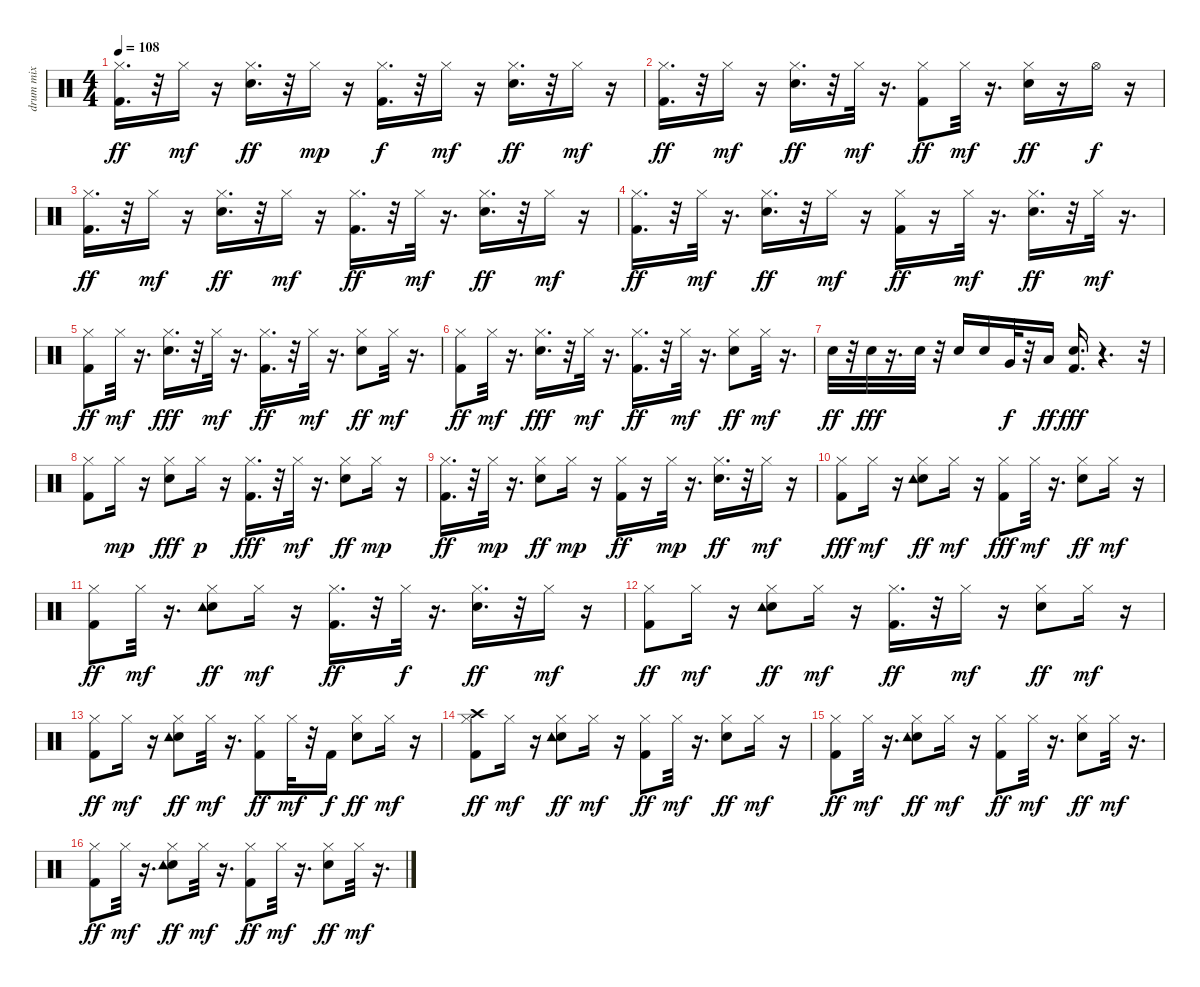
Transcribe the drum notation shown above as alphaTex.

\track ("drum mix" "drum mix") {instrument percussion}
\staff {score}
\articulation defaults
\ts (4 4)
\tempo 108
\clef neutral
\ks c
("Kick (hit) 2" "Hi-Hat (closed)").16{d dy ff} r.32 "Hi-Hat (closed)".16{dy mf} r.16 ("Electric Snare (hit)" "Hi-Hat (closed)").16{d dy ff} r.32 "Hi-Hat (closed)".16{dy mp} r.16 ("Kick (hit) 2" "Hi-Hat (closed)").16{d dy f} r.32 "Hi-Hat (closed)".16{dy mf} r.16 ("Electric Snare (hit)" "Hi-Hat (closed)").16{d dy ff} r.32 "Hi-Hat (closed)".16{dy mf} r.16 |
("Kick (hit) 2" "Hi-Hat (closed)").16{d dy ff} r.32 "Hi-Hat (closed)".16{dy mf} r.16 ("Electric Snare (hit)" "Hi-Hat (closed)").16{d dy ff} r.32 "Hi-Hat (closed)".32{dy mf} r.16{d} ("Kick (hit) 2" "Hi-Hat (closed)").8{dy ff} "Hi-Hat (closed)".32{dy mf} r.16{d} ("Electric Snare (hit)" "Hi-Hat (closed)").16{dy ff} r.16 "Hi-Hat (open)".16{dy f} r.16 |
("Kick (hit) 2" "Hi-Hat (closed)").16{d dy ff} r.32 "Hi-Hat (closed)".16{dy mf} r.16 ("Electric Snare (hit)" "Hi-Hat (closed)").16{d dy ff} r.32 "Hi-Hat (closed)".16{dy mf} r.16 ("Kick (hit) 2" "Hi-Hat (closed)").16{d dy ff} r.32 "Hi-Hat (closed)".32{dy mf} r.16{d} ("Electric Snare (hit)" "Hi-Hat (closed)").16{d dy ff} r.32 "Hi-Hat (closed)".16{dy mf} r.16 |
("Kick (hit) 2" "Hi-Hat (closed)").16{d dy ff} r.32 "Hi-Hat (closed)".32{dy mf} r.16{d} ("Electric Snare (hit)" "Hi-Hat (closed)").16{d dy ff} r.32 "Hi-Hat (closed)".16{dy mf} r.16 ("Kick (hit) 2" "Hi-Hat (closed)").16{dy ff} r.16 "Hi-Hat (closed)".32{dy mf} r.16{d} ("Electric Snare (hit)" "Hi-Hat (closed)").16{d dy ff} r.32 "Hi-Hat (closed)".32{dy mf} r.16{d} |
("Kick (hit) 2" "Hi-Hat (closed)").8{dy ff} "Hi-Hat (closed)".32{dy mf} r.16{d} ("Electric Snare (hit)" "Hi-Hat (closed)").16{d dy fff} r.32 "Hi-Hat (closed)".32{dy mf} r.16{d} ("Kick (hit) 2" "Hi-Hat (closed)").16{d dy ff} r.32 "Hi-Hat (closed)".32{dy mf} r.16{d} ("Electric Snare (hit)" "Hi-Hat (closed)").8{dy ff} "Hi-Hat (closed)".32{dy mf} r.16{d} |
("Kick (hit) 2" "Hi-Hat (closed)").8{dy ff} "Hi-Hat (closed)".32{dy mf} r.16{d} ("Electric Snare (hit)" "Hi-Hat (closed)").16{d dy fff} r.32 "Hi-Hat (closed)".32{dy mf} r.16{d} ("Kick (hit) 2" "Hi-Hat (closed)").16{d dy ff} r.32 "Hi-Hat (closed)".32{dy mf} r.16{d} ("Electric Snare (hit)" "Hi-Hat (closed)").8{dy ff} "Hi-Hat (closed)".32{dy mf} r.16{d} |
"Electric Snare (hit)".32{dy ff} r.32 "Electric Snare (hit)".32{dy fff} r.16{d} "Electric Snare (hit)".32 r.32 "Electric Snare (hit)".16 "Electric Snare (hit)".16 "Very Low Tom (hit)".32{dy f} r.32 "Low Floor Tom (hit)".16{dy ff} ("Kick (hit) 2" "Electric Snare (hit)").16{d dy fff} r.4{d} r.32 |
("Kick (hit) 2" "Hi-Hat (closed)").8 "Hi-Hat (closed)".16{dy mp} r.16 ("Electric Snare (hit)" "Hi-Hat (closed)").8{dy fff} "Hi-Hat (closed)".16{dy p} r.16 ("Kick (hit) 2" "Hi-Hat (closed)").16{d dy fff} r.32 "Hi-Hat (closed)".32{dy mf} r.16{d} ("Electric Snare (hit)" "Hi-Hat (closed)").8{dy ff} "Hi-Hat (closed)".16{dy mp} r.16 |
("Kick (hit) 2" "Hi-Hat (closed)").16{d dy ff} r.32 "Hi-Hat (closed)".32{dy mp} r.16{d} ("Electric Snare (hit)" "Hi-Hat (closed)").8{dy ff} "Hi-Hat (closed)".16{dy mp} r.16 ("Kick (hit) 2" "Hi-Hat (closed)").16{dy ff} r.16 "Hi-Hat (closed)".32{dy mp} r.16{d} ("Electric Snare (hit)" "Hi-Hat (closed)").16{d dy ff} r.32 "Hi-Hat (closed)".16{dy mf} r.16 |
("Kick (hit) 2" "Hi-Hat (closed)").8{dy fff} "Hi-Hat (closed)".16{dy mf} r.16 ("Electric Snare (hit)" "Hi-Hat (closed)" "Tambourine (hit)").8{dy ff} "Hi-Hat (closed)".16{dy mf} r.16 ("Kick (hit) 2" "Hi-Hat (closed)").8{dy fff} "Hi-Hat (closed)".32{dy mf} r.16{d} ("Electric Snare (hit)" "Hi-Hat (closed)").8{dy ff} "Hi-Hat (closed)".16{dy mf} r.16 |
("Kick (hit) 2" "Hi-Hat (closed)").8{dy ff} "Hi-Hat (closed)".32{dy mf} r.16{d} ("Electric Snare (hit)" "Hi-Hat (closed)" "Tambourine (hit)").8{dy ff} "Hi-Hat (closed)".16{dy mf} r.16 ("Kick (hit) 2" "Hi-Hat (closed)").16{d dy ff} r.32 "Hi-Hat (closed)".32{dy f} r.16{d} ("Electric Snare (hit)" "Hi-Hat (closed)").16{d dy ff} r.32 "Hi-Hat (closed)".16{dy mf} r.16 |
("Kick (hit) 2" "Hi-Hat (closed)").8{dy ff} "Hi-Hat (closed)".16{dy mf} r.16 ("Electric Snare (hit)" "Hi-Hat (closed)" "Tambourine (hit)").8{dy ff} "Hi-Hat (closed)".16{dy mf} r.16 ("Kick (hit) 2" "Hi-Hat (closed)").16{d dy ff} r.32 "Hi-Hat (closed)".16{dy mf} r.16 ("Electric Snare (hit)" "Hi-Hat (closed)").8{dy ff} "Hi-Hat (closed)".16{dy mf} r.16 |
("Kick (hit) 2" "Hi-Hat (closed)").8{dy ff} "Hi-Hat (closed)".16{dy mf} r.16 ("Electric Snare (hit)" "Hi-Hat (closed)" "Tambourine (hit)").8{dy ff} "Hi-Hat (closed)".32{dy mf} r.16{d} ("Kick (hit) 2" "Hi-Hat (closed)").8{dy ff} "Hi-Hat (closed)".32{dy mf} r.32 "Kick (hit) 2".16{dy f} ("Electric Snare (hit)" "Hi-Hat (closed)").8{dy ff} "Hi-Hat (closed)".16{dy mf} r.16 |
("Kick (hit) 2" "Hi-Hat (closed)" "Crash high (hit)").8{dy ff} "Hi-Hat (closed)".16{dy mf} r.16 ("Electric Snare (hit)" "Hi-Hat (closed)" "Tambourine (hit)").8{dy ff} "Hi-Hat (closed)".16{dy mf} r.16 ("Kick (hit) 2" "Hi-Hat (closed)").8{dy ff} "Hi-Hat (closed)".32{dy mf} r.16{d} ("Electric Snare (hit)" "Hi-Hat (closed)").8{dy ff} "Hi-Hat (closed)".16{dy mf} r.16 |
("Kick (hit) 2" "Hi-Hat (closed)").8{dy ff} "Hi-Hat (closed)".32{dy mf} r.16{d} ("Electric Snare (hit)" "Hi-Hat (closed)" "Tambourine (hit)").8{dy ff} "Hi-Hat (closed)".16{dy mf} r.16 ("Kick (hit) 2" "Hi-Hat (closed)").8{dy ff} "Hi-Hat (closed)".32{dy mf} r.16{d} ("Electric Snare (hit)" "Hi-Hat (closed)").8{dy ff} "Hi-Hat (closed)".32{dy mf} r.16{d} |
("Kick (hit) 2" "Hi-Hat (closed)").8{dy ff} "Hi-Hat (closed)".32{dy mf} r.16{d} ("Electric Snare (hit)" "Hi-Hat (closed)" "Tambourine (hit)").8{dy ff} "Hi-Hat (closed)".32{dy mf} r.16{d} ("Kick (hit) 2" "Hi-Hat (closed)").8{dy ff} "Hi-Hat (closed)".32{dy mf} r.16{d} ("Electric Snare (hit)" "Hi-Hat (closed)").8{dy ff} "Hi-Hat (closed)".32{dy mf} r.16{d}
